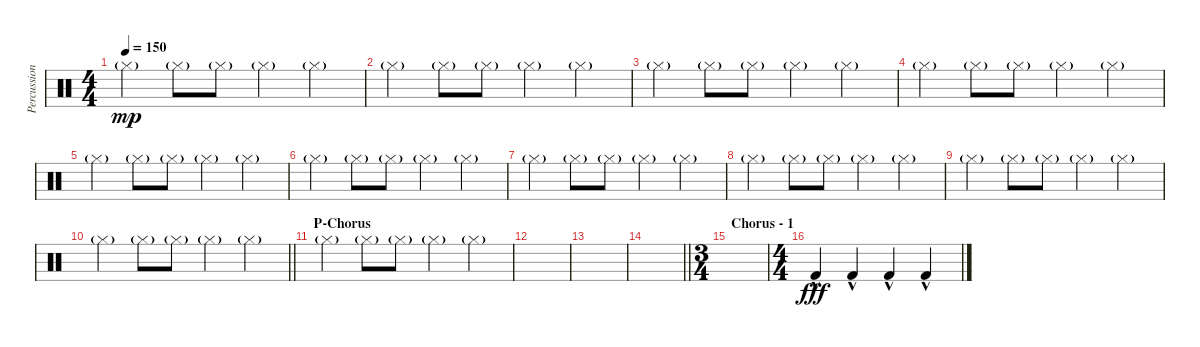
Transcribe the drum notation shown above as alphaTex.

\track ("Percussion" "Percussion") {instrument percussion}
\staff {score}
\articulation defaults
\ts (4 4)
\tempo 150
\clef neutral
\ks c "Hi-Hat (closed)"{g}.4{dy mp} "Hi-Hat (closed)"{g}.8 "Hi-Hat (closed)"{g}.8 "Hi-Hat (closed)"{g}.4 "Hi-Hat (closed)"{g}.4
|
"Hi-Hat (closed)"{g}.4 "Hi-Hat (closed)"{g}.8 "Hi-Hat (closed)"{g}.8 "Hi-Hat (closed)"{g}.4 "Hi-Hat (closed)"{g}.4 |
"Hi-Hat (closed)"{g}.4 "Hi-Hat (closed)"{g}.8 "Hi-Hat (closed)"{g}.8 "Hi-Hat (closed)"{g}.4 "Hi-Hat (closed)"{g}.4 |
"Hi-Hat (closed)"{g}.4 "Hi-Hat (closed)"{g}.8 "Hi-Hat (closed)"{g}.8 "Hi-Hat (closed)"{g}.4 "Hi-Hat (closed)"{g}.4 |
"Hi-Hat (closed)"{g}.4 "Hi-Hat (closed)"{g}.8 "Hi-Hat (closed)"{g}.8 "Hi-Hat (closed)"{g}.4 "Hi-Hat (closed)"{g}.4 |
"Hi-Hat (closed)"{g}.4 "Hi-Hat (closed)"{g}.8 "Hi-Hat (closed)"{g}.8 "Hi-Hat (closed)"{g}.4 "Hi-Hat (closed)"{g}.4 |
"Hi-Hat (closed)"{g}.4 "Hi-Hat (closed)"{g}.8 "Hi-Hat (closed)"{g}.8 "Hi-Hat (closed)"{g}.4 "Hi-Hat (closed)"{g}.4 |
"Hi-Hat (closed)"{g}.4 "Hi-Hat (closed)"{g}.8 "Hi-Hat (closed)"{g}.8 "Hi-Hat (closed)"{g}.4 "Hi-Hat (closed)"{g}.4 |
"Hi-Hat (closed)"{g}.4 "Hi-Hat (closed)"{g}.8 "Hi-Hat (closed)"{g}.8 "Hi-Hat (closed)"{g}.4 "Hi-Hat (closed)"{g}.4 |
\barLineRight lightlight "Hi-Hat (closed)"{g}.4 "Hi-Hat (closed)"{g}.8 "Hi-Hat (closed)"{g}.8 "Hi-Hat (closed)"{g}.4 "Hi-Hat (closed)"{g}.4
|
\section ("" "P-Chorus")
"Hi-Hat (closed)"{g}.4 "Hi-Hat (closed)"{g}.8 "Hi-Hat (closed)"{g}.8 "Hi-Hat (closed)"{g}.4 "Hi-Hat (closed)"{g}.4 |
|
|
\barLineRight lightlight
|
\ts (3 4)
\section ("" "Chorus - 1")
|
\ts (4 4)
"Kick (hit) 2"{hac}.4{dy fff} "Kick (hit) 2"{hac}.4 "Kick (hit) 2"{hac}.4 "Kick (hit) 2"{hac}.4
